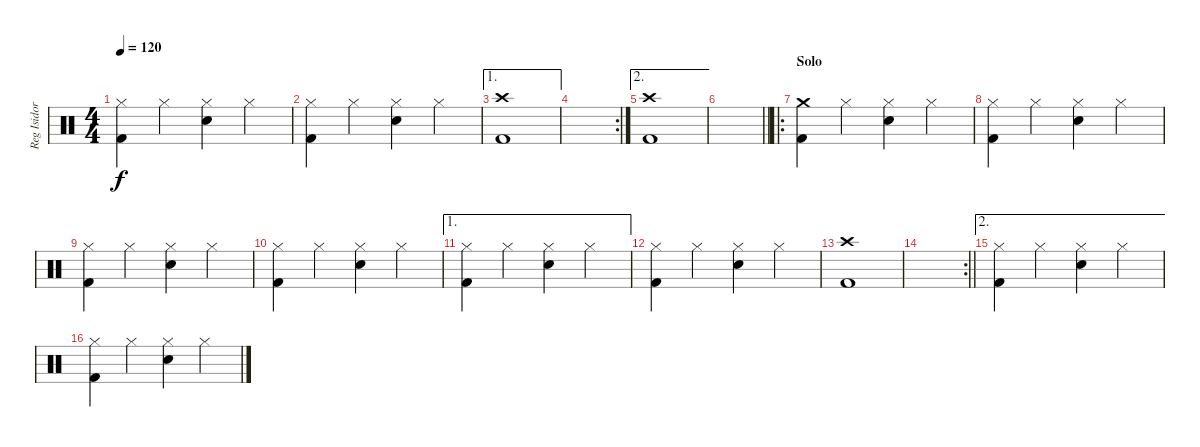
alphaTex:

\track ("Reg Isidor" "Reg Isidor") {instrument percussion}
\staff {score}
\articulation defaults
\ts (4 4)
\tempo 120
\clef neutral
\ks c
("Hi-Hat (closed)" "Kick (hit) 2").4{dy f} "Hi-Hat (closed)".4 ("Hi-Hat (closed)" "Snare (hit) 2").4 "Hi-Hat (closed)".4 |
("Hi-Hat (closed)" "Kick (hit) 2").4 "Hi-Hat (closed)".4 ("Hi-Hat (closed)" "Snare (hit) 2").4 "Hi-Hat (closed)".4 |
\ae 1
("Crash high (hit)" "Kick (hit) 2").1 |
\rc 2
|
\ae 2
("Crash high (hit)" "Kick (hit) 2").1 |
\barLineRight lightlight
|
\ro
\section ("" "Solo")
("Crash medium (hit)" "Kick (hit) 2").4 "Hi-Hat (closed)".4 ("Hi-Hat (closed)" "Snare (hit) 2").4 "Hi-Hat (closed)".4 |
("Hi-Hat (closed)" "Kick (hit) 2").4 "Hi-Hat (closed)".4 ("Hi-Hat (closed)" "Snare (hit) 2").4 "Hi-Hat (closed)".4 |
("Hi-Hat (closed)" "Kick (hit) 2").4 "Hi-Hat (closed)".4 ("Hi-Hat (closed)" "Snare (hit) 2").4 "Hi-Hat (closed)".4 |
("Hi-Hat (closed)" "Kick (hit) 2").4 "Hi-Hat (closed)".4 ("Hi-Hat (closed)" "Snare (hit) 2").4 "Hi-Hat (closed)".4 |
\ae 1
("Hi-Hat (closed)" "Kick (hit) 2").4 "Hi-Hat (closed)".4 ("Hi-Hat (closed)" "Snare (hit) 2").4 "Hi-Hat (closed)".4 |
("Hi-Hat (closed)" "Kick (hit) 2").4 "Hi-Hat (closed)".4 ("Hi-Hat (closed)" "Snare (hit) 2").4 "Hi-Hat (closed)".4 |
("Crash high (hit)" "Kick (hit) 2").1 |
\rc 2
\barLineRight lightlight
|
\ae 2
("Hi-Hat (closed)" "Kick (hit) 2").4 "Hi-Hat (closed)".4 ("Hi-Hat (closed)" "Snare (hit) 2").4 "Hi-Hat (closed)".4 |
("Hi-Hat (closed)" "Kick (hit) 2").4 "Hi-Hat (closed)".4 ("Hi-Hat (closed)" "Snare (hit) 2").4 "Hi-Hat (closed)".4
